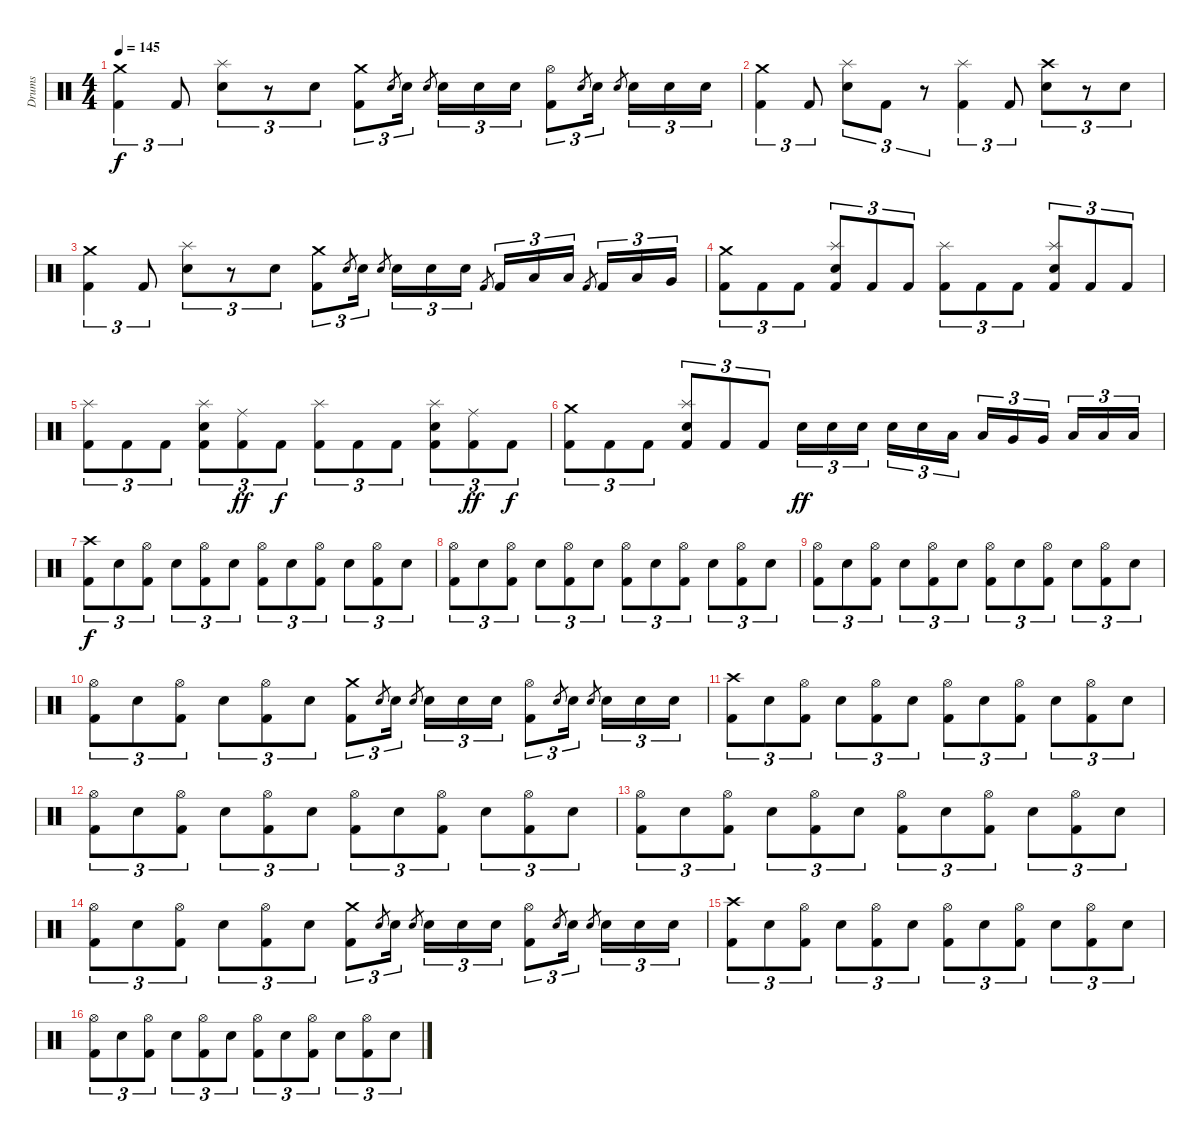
\track ("Drums" "Drums") {instrument percussion}
\staff {score}
\articulation defaults
\ts (4 4)
\tempo 145
\clef neutral
\ks c
("Crash medium (hit)" "Kick (hit) 2").4{tu (3 2) dy f} "Kick (hit) 2".8{tu (3 2)} ("Splash (hit)" "Electric Snare (hit)").8{tu (3 2)} r.8{tu (3 2)} "Electric Snare (hit)".8{tu (3 2)} ("Crash medium (hit)" "Kick (hit) 2").8{tu (3 2)} "Electric Snare (hit)".8{gr} "Electric Snare (hit)".16{tu (3 2)} "Electric Snare (hit)".8{gr beam splitsecondary} "Electric Snare (hit)".16{tu (3 2)} "Electric Snare (hit)".16{tu (3 2)} "Electric Snare (hit)".16{tu (3 2)} ("Hi-Hat (open)" "Kick (hit) 2").8{tu (3 2)} "Electric Snare (hit)".8{gr} "Electric Snare (hit)".16{tu (3 2)} "Electric Snare (hit)".8{gr beam splitsecondary} "Electric Snare (hit)".16{tu (3 2)} "Electric Snare (hit)".16{tu (3 2)} "Electric Snare (hit)".16{tu (3 2)} |
("Crash medium (hit)" "Kick (hit) 2").4{tu (3 2)} "Kick (hit) 2".8{tu (3 2)} ("Splash (hit)" "Electric Snare (hit)").8{tu (3 2)} "Kick (hit) 2".8{tu (3 2)} r.8{tu (3 2)} ("Splash (hit)" "Kick (hit) 2").4{tu (3 2)} "Kick (hit) 2".8{tu (3 2)} ("Crash high (hit)" "Electric Snare (hit)").8{tu (3 2)} r.8{tu (3 2)} "Electric Snare (hit)".8{tu (3 2)} |
("Crash medium (hit)" "Kick (hit) 2").4{tu (3 2)} "Kick (hit) 2".8{tu (3 2)} ("Splash (hit)" "Electric Snare (hit)").8{tu (3 2)} r.8{tu (3 2)} "Electric Snare (hit)".8{tu (3 2)} ("Crash medium (hit)" "Kick (hit) 2").8{tu (3 2)} "Electric Snare (hit)".8{gr} "Electric Snare (hit)".16{tu (3 2)} "Electric Snare (hit)".8{gr beam splitsecondary} "Electric Snare (hit)".16{tu (3 2)} "Electric Snare (hit)".16{tu (3 2)} "Electric Snare (hit)".16{tu (3 2)} "Kick (hit) 2".8{gr} "Kick (hit) 2".16{tu (3 2)} "Low Tom (hit)".16{tu (3 2)} "Low Tom (hit)".16{tu (3 2)} "Kick (hit) 2".8{gr beam splitsecondary} "Kick (hit) 2".16{tu (3 2)} "Low Tom (hit)".16{tu (3 2)} "Very Low Tom (hit)".16{tu (3 2)} |
("Crash medium (hit)" "Kick (hit) 2").8{tu (3 2)} "Kick (hit) 2".8{tu (3 2)} "Kick (hit) 2".8{tu (3 2)} ("Splash (hit)" "Electric Snare (hit)" "Kick (hit) 2").8{tu (3 2)} "Kick (hit) 2".8{tu (3 2)} "Kick (hit) 2".8{tu (3 2)} ("Splash (hit)" "Kick (hit) 2").8{tu (3 2)} "Kick (hit) 2".8{tu (3 2)} "Kick (hit) 2".8{tu (3 2)} ("Splash (hit)" "Electric Snare (hit)" "Kick (hit) 2").8{tu (3 2)} "Kick (hit) 2".8{tu (3 2)} "Kick (hit) 2".8{tu (3 2)} |
("Splash (hit)" "Kick (hit) 2").8{tu (3 2)} "Kick (hit) 2".8{tu (3 2)} "Kick (hit) 2".8{tu (3 2)} ("Splash (hit)" "Electric Snare (hit)" "Kick (hit) 2").8{tu (3 2)} ("Ride (middle)" "Kick (hit) 2").8{tu (3 2) dy ff} "Kick (hit) 2".8{tu (3 2) dy f} ("Splash (hit)" "Kick (hit) 2").8{tu (3 2)} "Kick (hit) 2".8{tu (3 2)} "Kick (hit) 2".8{tu (3 2)} ("Splash (hit)" "Electric Snare (hit)" "Kick (hit) 2").8{tu (3 2)} ("Ride (middle)" "Kick (hit) 2").8{tu (3 2) dy ff} "Kick (hit) 2".8{tu (3 2) dy f} |
("Crash medium (hit)" "Kick (hit) 2").8{tu (3 2)} "Kick (hit) 2".8{tu (3 2)} "Kick (hit) 2".8{tu (3 2)} ("Splash (hit)" "Electric Snare (hit)" "Kick (hit) 2").8{tu (3 2)} "Kick (hit) 2".8{tu (3 2)} "Kick (hit) 2".8{tu (3 2)} "Electric Snare (hit)".16{tu (3 2) dy ff} "Electric Snare (hit)".16{tu (3 2)} "Electric Snare (hit)".16{tu (3 2) beam splitsecondary} "Electric Snare (hit)".16{tu (3 2)} "Electric Snare (hit)".16{tu (3 2)} "Low Tom (hit)".16{tu (3 2)} "Low Tom (hit)".16{tu (3 2)} "Very Low Tom (hit)".16{tu (3 2)} "Very Low Tom (hit)".16{tu (3 2) beam splitsecondary} "Low Floor Tom (hit)".16{tu (3 2)} "Low Floor Tom (hit)".16{tu (3 2)} "Low Floor Tom (hit)".16{tu (3 2)} |
("Crash high (hit)" "Kick (hit) 2").8{tu (3 2) dy f} "Electric Snare (hit)".8{tu (3 2)} ("Hi-Hat (open)" "Kick (hit) 2").8{tu (3 2)} "Electric Snare (hit)".8{tu (3 2)} ("Hi-Hat (open)" "Kick (hit) 2").8{tu (3 2)} "Electric Snare (hit)".8{tu (3 2)} ("Hi-Hat (open)" "Kick (hit) 2").8{tu (3 2)} "Electric Snare (hit)".8{tu (3 2)} ("Hi-Hat (open)" "Kick (hit) 2").8{tu (3 2)} "Electric Snare (hit)".8{tu (3 2)} ("Hi-Hat (open)" "Kick (hit) 2").8{tu (3 2)} "Electric Snare (hit)".8{tu (3 2)} |
("Hi-Hat (open)" "Kick (hit) 2").8{tu (3 2)} "Electric Snare (hit)".8{tu (3 2)} ("Hi-Hat (open)" "Kick (hit) 2").8{tu (3 2)} "Electric Snare (hit)".8{tu (3 2)} ("Hi-Hat (open)" "Kick (hit) 2").8{tu (3 2)} "Electric Snare (hit)".8{tu (3 2)} ("Hi-Hat (open)" "Kick (hit) 2").8{tu (3 2)} "Electric Snare (hit)".8{tu (3 2)} ("Hi-Hat (open)" "Kick (hit) 2").8{tu (3 2)} "Electric Snare (hit)".8{tu (3 2)} ("Hi-Hat (open)" "Kick (hit) 2").8{tu (3 2)} "Electric Snare (hit)".8{tu (3 2)} |
("Hi-Hat (open)" "Kick (hit) 2").8{tu (3 2)} "Electric Snare (hit)".8{tu (3 2)} ("Hi-Hat (open)" "Kick (hit) 2").8{tu (3 2)} "Electric Snare (hit)".8{tu (3 2)} ("Hi-Hat (open)" "Kick (hit) 2").8{tu (3 2)} "Electric Snare (hit)".8{tu (3 2)} ("Hi-Hat (open)" "Kick (hit) 2").8{tu (3 2)} "Electric Snare (hit)".8{tu (3 2)} ("Hi-Hat (open)" "Kick (hit) 2").8{tu (3 2)} "Electric Snare (hit)".8{tu (3 2)} ("Hi-Hat (open)" "Kick (hit) 2").8{tu (3 2)} "Electric Snare (hit)".8{tu (3 2)} |
("Hi-Hat (open)" "Kick (hit) 2").8{tu (3 2)} "Electric Snare (hit)".8{tu (3 2)} ("Hi-Hat (open)" "Kick (hit) 2").8{tu (3 2)} "Electric Snare (hit)".8{tu (3 2)} ("Hi-Hat (open)" "Kick (hit) 2").8{tu (3 2)} "Electric Snare (hit)".8{tu (3 2)} ("Crash medium (hit)" "Kick (hit) 2").8{tu (3 2)} "Electric Snare (hit)".8{gr} "Electric Snare (hit)".16{tu (3 2)} "Electric Snare (hit)".8{gr beam splitsecondary} "Electric Snare (hit)".16{tu (3 2)} "Electric Snare (hit)".16{tu (3 2)} "Electric Snare (hit)".16{tu (3 2)} ("Hi-Hat (open)" "Kick (hit) 2").8{tu (3 2)} "Electric Snare (hit)".8{gr} "Electric Snare (hit)".16{tu (3 2)} "Electric Snare (hit)".8{gr beam splitsecondary} "Electric Snare (hit)".16{tu (3 2)} "Electric Snare (hit)".16{tu (3 2)} "Electric Snare (hit)".16{tu (3 2)} |
("Crash high (hit)" "Kick (hit) 2").8{tu (3 2)} "Electric Snare (hit)".8{tu (3 2)} ("Hi-Hat (open)" "Kick (hit) 2").8{tu (3 2)} "Electric Snare (hit)".8{tu (3 2)} ("Hi-Hat (open)" "Kick (hit) 2").8{tu (3 2)} "Electric Snare (hit)".8{tu (3 2)} ("Hi-Hat (open)" "Kick (hit) 2").8{tu (3 2)} "Electric Snare (hit)".8{tu (3 2)} ("Hi-Hat (open)" "Kick (hit) 2").8{tu (3 2)} "Electric Snare (hit)".8{tu (3 2)} ("Hi-Hat (open)" "Kick (hit) 2").8{tu (3 2)} "Electric Snare (hit)".8{tu (3 2)} |
("Hi-Hat (open)" "Kick (hit) 2").8{tu (3 2)} "Electric Snare (hit)".8{tu (3 2)} ("Hi-Hat (open)" "Kick (hit) 2").8{tu (3 2)} "Electric Snare (hit)".8{tu (3 2)} ("Hi-Hat (open)" "Kick (hit) 2").8{tu (3 2)} "Electric Snare (hit)".8{tu (3 2)} ("Hi-Hat (open)" "Kick (hit) 2").8{tu (3 2)} "Electric Snare (hit)".8{tu (3 2)} ("Hi-Hat (open)" "Kick (hit) 2").8{tu (3 2)} "Electric Snare (hit)".8{tu (3 2)} ("Hi-Hat (open)" "Kick (hit) 2").8{tu (3 2)} "Electric Snare (hit)".8{tu (3 2)} |
("Hi-Hat (open)" "Kick (hit) 2").8{tu (3 2)} "Electric Snare (hit)".8{tu (3 2)} ("Hi-Hat (open)" "Kick (hit) 2").8{tu (3 2)} "Electric Snare (hit)".8{tu (3 2)} ("Hi-Hat (open)" "Kick (hit) 2").8{tu (3 2)} "Electric Snare (hit)".8{tu (3 2)} ("Hi-Hat (open)" "Kick (hit) 2").8{tu (3 2)} "Electric Snare (hit)".8{tu (3 2)} ("Hi-Hat (open)" "Kick (hit) 2").8{tu (3 2)} "Electric Snare (hit)".8{tu (3 2)} ("Hi-Hat (open)" "Kick (hit) 2").8{tu (3 2)} "Electric Snare (hit)".8{tu (3 2)} |
("Hi-Hat (open)" "Kick (hit) 2").8{tu (3 2)} "Electric Snare (hit)".8{tu (3 2)} ("Hi-Hat (open)" "Kick (hit) 2").8{tu (3 2)} "Electric Snare (hit)".8{tu (3 2)} ("Hi-Hat (open)" "Kick (hit) 2").8{tu (3 2)} "Electric Snare (hit)".8{tu (3 2)} ("Crash medium (hit)" "Kick (hit) 2").8{tu (3 2)} "Electric Snare (hit)".8{gr} "Electric Snare (hit)".16{tu (3 2)} "Electric Snare (hit)".8{gr beam splitsecondary} "Electric Snare (hit)".16{tu (3 2)} "Electric Snare (hit)".16{tu (3 2)} "Electric Snare (hit)".16{tu (3 2)} ("Hi-Hat (open)" "Kick (hit) 2").8{tu (3 2)} "Electric Snare (hit)".8{gr} "Electric Snare (hit)".16{tu (3 2)} "Electric Snare (hit)".8{gr beam splitsecondary} "Electric Snare (hit)".16{tu (3 2)} "Electric Snare (hit)".16{tu (3 2)} "Electric Snare (hit)".16{tu (3 2)} |
("Crash high (hit)" "Kick (hit) 2").8{tu (3 2)} "Electric Snare (hit)".8{tu (3 2)} ("Hi-Hat (open)" "Kick (hit) 2").8{tu (3 2)} "Electric Snare (hit)".8{tu (3 2)} ("Hi-Hat (open)" "Kick (hit) 2").8{tu (3 2)} "Electric Snare (hit)".8{tu (3 2)} ("Hi-Hat (open)" "Kick (hit) 2").8{tu (3 2)} "Electric Snare (hit)".8{tu (3 2)} ("Hi-Hat (open)" "Kick (hit) 2").8{tu (3 2)} "Electric Snare (hit)".8{tu (3 2)} ("Hi-Hat (open)" "Kick (hit) 2").8{tu (3 2)} "Electric Snare (hit)".8{tu (3 2)} |
("Hi-Hat (open)" "Kick (hit) 2").8{tu (3 2)} "Electric Snare (hit)".8{tu (3 2)} ("Hi-Hat (open)" "Kick (hit) 2").8{tu (3 2)} "Electric Snare (hit)".8{tu (3 2)} ("Hi-Hat (open)" "Kick (hit) 2").8{tu (3 2)} "Electric Snare (hit)".8{tu (3 2)} ("Hi-Hat (open)" "Kick (hit) 2").8{tu (3 2)} "Electric Snare (hit)".8{tu (3 2)} ("Hi-Hat (open)" "Kick (hit) 2").8{tu (3 2)} "Electric Snare (hit)".8{tu (3 2)} ("Hi-Hat (open)" "Kick (hit) 2").8{tu (3 2)} "Electric Snare (hit)".8{tu (3 2)}
